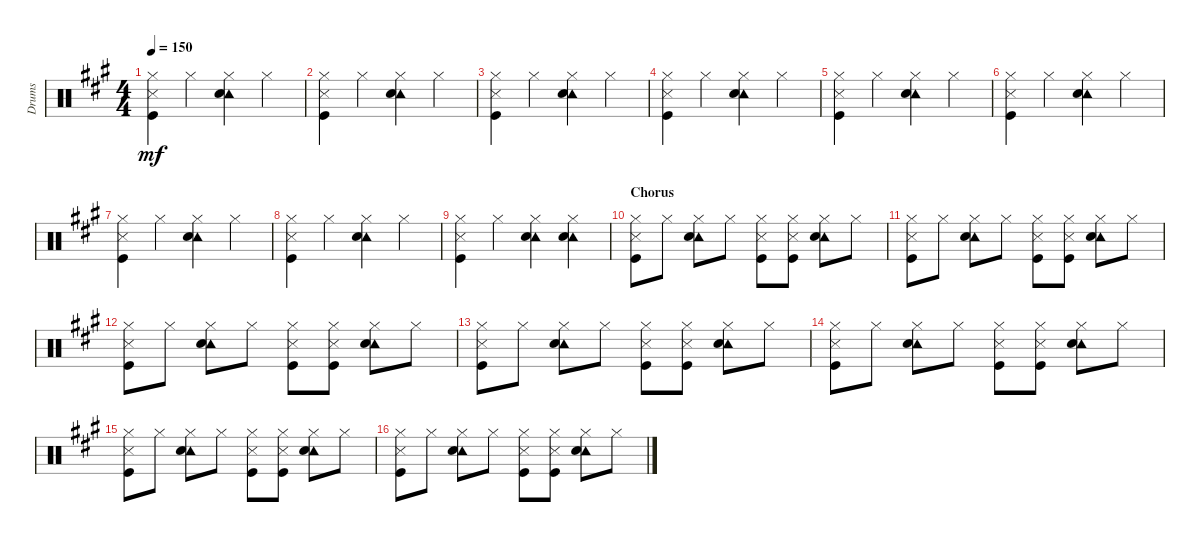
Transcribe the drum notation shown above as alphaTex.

\track ("Drums" "Drums") {instrument percussion}
\staff {score}
\articulation defaults
\ts (4 4)
\tempo 150
\clef neutral
\ks a
("Hi-Hat (closed)" "Metronome (hit)" "Kick (hit)").4{dy mf} "Hi-Hat (closed)".4 ("Tambourine (hit)" "Hi-Hat (closed)" "Electric Snare (hit)").4 "Hi-Hat (closed)".4 |
("Hi-Hat (closed)" "Metronome (hit)" "Kick (hit)").4 "Hi-Hat (closed)".4 ("Tambourine (hit)" "Hi-Hat (closed)" "Electric Snare (hit)").4 "Hi-Hat (closed)".4 |
("Hi-Hat (closed)" "Metronome (hit)" "Kick (hit)").4 "Hi-Hat (closed)".4 ("Tambourine (hit)" "Hi-Hat (closed)" "Electric Snare (hit)").4 "Hi-Hat (closed)".4 |
("Hi-Hat (closed)" "Metronome (hit)" "Kick (hit)").4 "Hi-Hat (closed)".4 ("Tambourine (hit)" "Hi-Hat (closed)" "Electric Snare (hit)").4 "Hi-Hat (closed)".4 |
("Hi-Hat (closed)" "Metronome (hit)" "Kick (hit)").4 "Hi-Hat (closed)".4 ("Tambourine (hit)" "Hi-Hat (closed)" "Electric Snare (hit)").4 "Hi-Hat (closed)".4 |
("Hi-Hat (closed)" "Metronome (hit)" "Kick (hit)").4 "Hi-Hat (closed)".4 ("Tambourine (hit)" "Hi-Hat (closed)" "Electric Snare (hit)").4 "Hi-Hat (closed)".4 |
("Hi-Hat (closed)" "Metronome (hit)" "Kick (hit)").4 "Hi-Hat (closed)".4 ("Tambourine (hit)" "Hi-Hat (closed)" "Electric Snare (hit)").4 "Hi-Hat (closed)".4 |
("Hi-Hat (closed)" "Metronome (hit)" "Kick (hit)").4 "Hi-Hat (closed)".4 ("Tambourine (hit)" "Hi-Hat (closed)" "Electric Snare (hit)").4 "Hi-Hat (closed)".4 |
("Hi-Hat (closed)" "Metronome (hit)" "Kick (hit)").4 "Hi-Hat (closed)".4 ("Tambourine (hit)" "Hi-Hat (closed)" "Electric Snare (hit)").4 ("Tambourine (hit)" "Hi-Hat (closed)" "Electric Snare (hit)").4 |
\section ("" "Chorus")
("Hi-Hat (closed)" "Metronome (hit)" "Kick (hit)").8 "Hi-Hat (closed)".8 ("Tambourine (hit)" "Hi-Hat (closed)" "Electric Snare (hit)").8 "Hi-Hat (closed)".8 ("Hi-Hat (closed)" "Metronome (hit)" "Kick (hit)").8 ("Hi-Hat (closed)" "Metronome (hit)" "Kick (hit)").8 ("Tambourine (hit)" "Hi-Hat (closed)" "Electric Snare (hit)").8 "Hi-Hat (closed)".8 |
("Hi-Hat (closed)" "Metronome (hit)" "Kick (hit)").8 "Hi-Hat (closed)".8 ("Tambourine (hit)" "Hi-Hat (closed)" "Electric Snare (hit)").8 "Hi-Hat (closed)".8 ("Hi-Hat (closed)" "Metronome (hit)" "Kick (hit)").8 ("Hi-Hat (closed)" "Metronome (hit)" "Kick (hit)").8 ("Tambourine (hit)" "Hi-Hat (closed)" "Electric Snare (hit)").8 "Hi-Hat (closed)".8 |
("Hi-Hat (closed)" "Metronome (hit)" "Kick (hit)").8 "Hi-Hat (closed)".8 ("Tambourine (hit)" "Hi-Hat (closed)" "Electric Snare (hit)").8 "Hi-Hat (closed)".8 ("Hi-Hat (closed)" "Metronome (hit)" "Kick (hit)").8 ("Hi-Hat (closed)" "Metronome (hit)" "Kick (hit)").8 ("Tambourine (hit)" "Hi-Hat (closed)" "Electric Snare (hit)").8 "Hi-Hat (closed)".8 |
("Hi-Hat (closed)" "Metronome (hit)" "Kick (hit)").8 "Hi-Hat (closed)".8 ("Tambourine (hit)" "Hi-Hat (closed)" "Electric Snare (hit)").8 "Hi-Hat (closed)".8 ("Hi-Hat (closed)" "Metronome (hit)" "Kick (hit)").8 ("Hi-Hat (closed)" "Metronome (hit)" "Kick (hit)").8 ("Tambourine (hit)" "Hi-Hat (closed)" "Electric Snare (hit)").8 "Hi-Hat (closed)".8 |
("Hi-Hat (closed)" "Metronome (hit)" "Kick (hit)").8 "Hi-Hat (closed)".8 ("Tambourine (hit)" "Hi-Hat (closed)" "Electric Snare (hit)").8 "Hi-Hat (closed)".8 ("Hi-Hat (closed)" "Metronome (hit)" "Kick (hit)").8 ("Hi-Hat (closed)" "Metronome (hit)" "Kick (hit)").8 ("Tambourine (hit)" "Hi-Hat (closed)" "Electric Snare (hit)").8 "Hi-Hat (closed)".8 |
("Hi-Hat (closed)" "Metronome (hit)" "Kick (hit)").8 "Hi-Hat (closed)".8 ("Tambourine (hit)" "Hi-Hat (closed)" "Electric Snare (hit)").8 "Hi-Hat (closed)".8 ("Hi-Hat (closed)" "Metronome (hit)" "Kick (hit)").8 ("Hi-Hat (closed)" "Metronome (hit)" "Kick (hit)").8 ("Tambourine (hit)" "Hi-Hat (closed)" "Electric Snare (hit)").8 "Hi-Hat (closed)".8 |
("Hi-Hat (closed)" "Metronome (hit)" "Kick (hit)").8 "Hi-Hat (closed)".8 ("Tambourine (hit)" "Hi-Hat (closed)" "Electric Snare (hit)").8 "Hi-Hat (closed)".8 ("Hi-Hat (closed)" "Metronome (hit)" "Kick (hit)").8 ("Hi-Hat (closed)" "Metronome (hit)" "Kick (hit)").8 ("Tambourine (hit)" "Hi-Hat (closed)" "Electric Snare (hit)").8 "Hi-Hat (closed)".8
